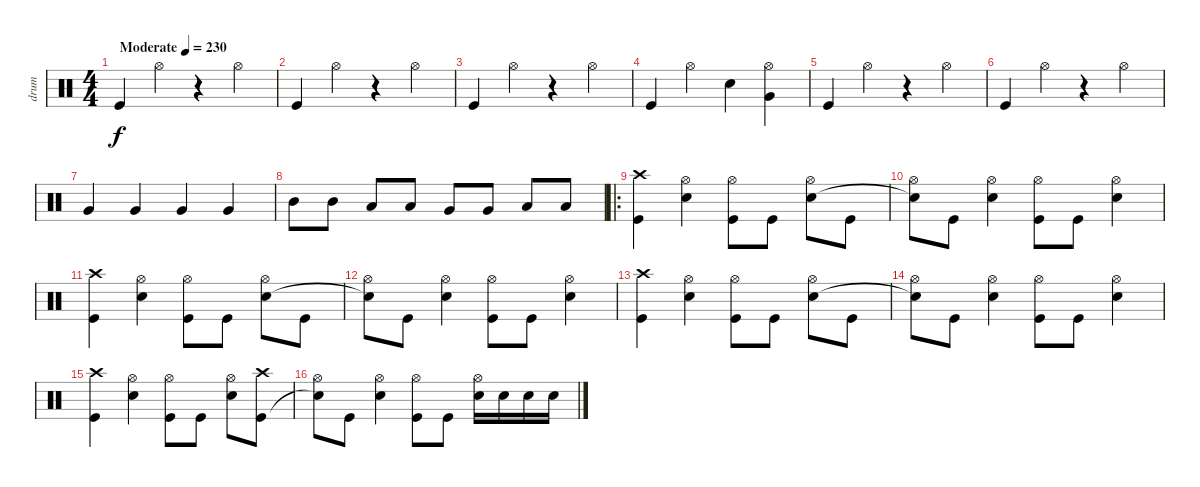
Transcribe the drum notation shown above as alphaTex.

\track ("drum" "drum") {instrument percussion}
\staff {score}
\articulation defaults
\ts (4 4)
\tempo (230 "Moderate")
\clef neutral
\ks c "Kick (hit)".4{dy f} "Hi-Hat (open)".4
r.4 "Hi-Hat (open)".4 |
"Kick (hit)".4 "Hi-Hat (open)".4 r.4 "Hi-Hat (open)".4 |
"Kick (hit)".4 "Hi-Hat (open)".4 r.4 "Hi-Hat (open)".4 |
"Kick (hit)".4 "Hi-Hat (open)".4 "Snare (hit) 2".4 ("Hi-Hat (open)" "Very Low Tom (hit)").4 |
"Kick (hit)".4 "Hi-Hat (open)".4 r.4 "Hi-Hat (open)".4 |
"Kick (hit)".4 "Hi-Hat (open)".4 r.4 "Hi-Hat (open)".4 |
"Very Low Tom (hit)".4 "Very Low Tom (hit)".4 "Very Low Tom (hit)".4 "Very Low Tom (hit)".4 |
"Mid Tom (hit)".8 "Mid Tom (hit)".8 "Low Tom (hit)".8 "Low Tom (hit)".8 "Very Low Tom (hit)".8 "Very Low Tom (hit)".8 "Low Floor Tom (hit)".8 "Low Floor Tom (hit)".8 |
\ro
("Crash high (hit)" "Kick (hit)").4 ("Hi-Hat (open)" "Snare (hit) 2").4 ("Hi-Hat (open)" "Kick (hit)").8 "Kick (hit)".8 ("Hi-Hat (open)" "Snare (hit) 2").8 "Kick (hit)".8 |
("Hi-Hat (open)" "Snare (hit) 2"{t}).8 "Kick (hit)".8 ("Hi-Hat (open)" "Snare (hit) 2").4 ("Hi-Hat (open)" "Kick (hit)").8 "Kick (hit)".8 ("Hi-Hat (open)" "Snare (hit) 2").4 |
("Crash high (hit)" "Kick (hit)").4 ("Hi-Hat (open)" "Snare (hit) 2").4 ("Hi-Hat (open)" "Kick (hit)").8 "Kick (hit)".8 ("Hi-Hat (open)" "Snare (hit) 2").8 "Kick (hit)".8 |
("Hi-Hat (open)" "Snare (hit) 2"{t}).8 "Kick (hit)".8 ("Hi-Hat (open)" "Snare (hit) 2").4 ("Hi-Hat (open)" "Kick (hit)").8 "Kick (hit)".8 ("Hi-Hat (open)" "Snare (hit) 2").4 |
("Crash high (hit)" "Kick (hit)").4 ("Hi-Hat (open)" "Snare (hit) 2").4 ("Hi-Hat (open)" "Kick (hit)").8 "Kick (hit)".8 ("Hi-Hat (open)" "Snare (hit) 2").8 "Kick (hit)".8 |
("Hi-Hat (open)" "Snare (hit) 2"{t}).8 "Kick (hit)".8 ("Hi-Hat (open)" "Snare (hit) 2").4 ("Hi-Hat (open)" "Kick (hit)").8 "Kick (hit)".8 ("Hi-Hat (open)" "Snare (hit) 2").4 |
("Crash high (hit)" "Kick (hit)").4 ("Hi-Hat (open)" "Snare (hit) 2").4 ("Hi-Hat (open)" "Kick (hit)").8 "Kick (hit)".8 ("Hi-Hat (open)" "Snare (hit) 2").8 ("Crash high (hit)" "Kick (hit)").8 |
("Hi-Hat (open)" "Snare (hit) 2"{t}).8 "Kick (hit)".8 ("Hi-Hat (open)" "Snare (hit) 2").4 ("Hi-Hat (open)" "Kick (hit)").8 "Kick (hit)".8 ("Hi-Hat (open)" "Snare (hit) 2").16 "Snare (hit) 2".16 "Snare (hit) 2".16 "Snare (hit) 2".16
